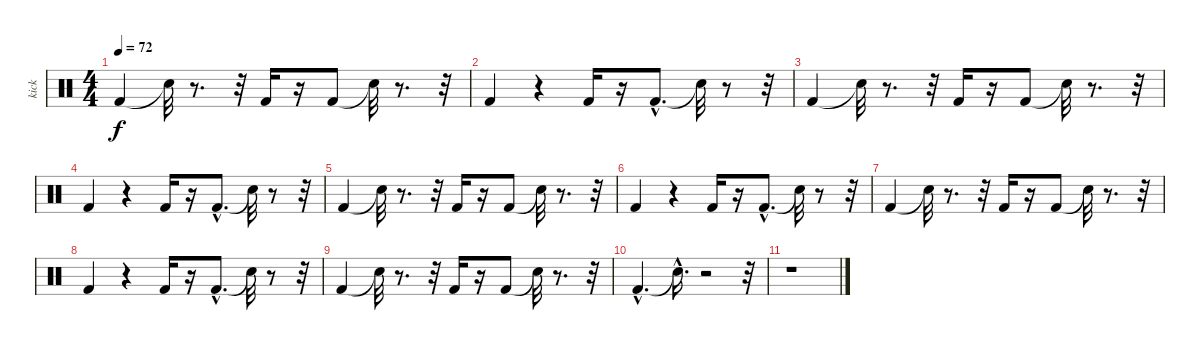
\track ("kick" "kick") {instrument percussion}
\staff {score}
\articulation defaults
\ts (4 4)
\tempo 72
\clef neutral
\ks c "Kick (hit) 2".4{dy f} "Snare (hit)"{t}.32
r.8{d} r.32 "Kick (hit) 2".16 r.16 "Kick (hit) 2".8 "Snare (hit)"{t}.32 r.8{d} r.32 |
"Kick (hit) 2".4 r.4 "Kick (hit) 2".16 r.16 "Kick (hit) 2"{hac}.8{d} "Snare (hit)"{t}.32 r.8 r.32 |
"Kick (hit) 2".4 "Snare (hit)"{t}.32 r.8{d} r.32 "Kick (hit) 2".16 r.16 "Kick (hit) 2".8 "Snare (hit)"{t}.32 r.8{d} r.32 |
"Kick (hit) 2".4 r.4 "Kick (hit) 2".16 r.16 "Kick (hit) 2"{hac}.8{d} "Snare (hit)"{t}.32 r.8 r.32 |
"Kick (hit) 2".4 "Snare (hit)"{t}.32 r.8{d} r.32 "Kick (hit) 2".16 r.16 "Kick (hit) 2".8 "Snare (hit)"{t}.32 r.8{d} r.32 |
"Kick (hit) 2".4 r.4 "Kick (hit) 2".16 r.16 "Kick (hit) 2"{hac}.8{d} "Snare (hit)"{t}.32 r.8 r.32 |
"Kick (hit) 2".4 "Snare (hit)"{t}.32 r.8{d} r.32 "Kick (hit) 2".16 r.16 "Kick (hit) 2".8 "Snare (hit)"{t}.32 r.8{d} r.32 |
"Kick (hit) 2".4 r.4 "Kick (hit) 2".16 r.16 "Kick (hit) 2"{hac}.8{d} "Snare (hit)"{t}.32 r.8 r.32 |
"Kick (hit) 2".4 "Snare (hit)"{t}.32 r.8{d} r.32 "Kick (hit) 2".16 r.16 "Kick (hit) 2".8 "Snare (hit)"{t}.32 r.8{d} r.32 |
"Kick (hit) 2"{hac}.4{d} "Snare (hit)"{hac t}.16{d} r.2 r.32 |
r.1
